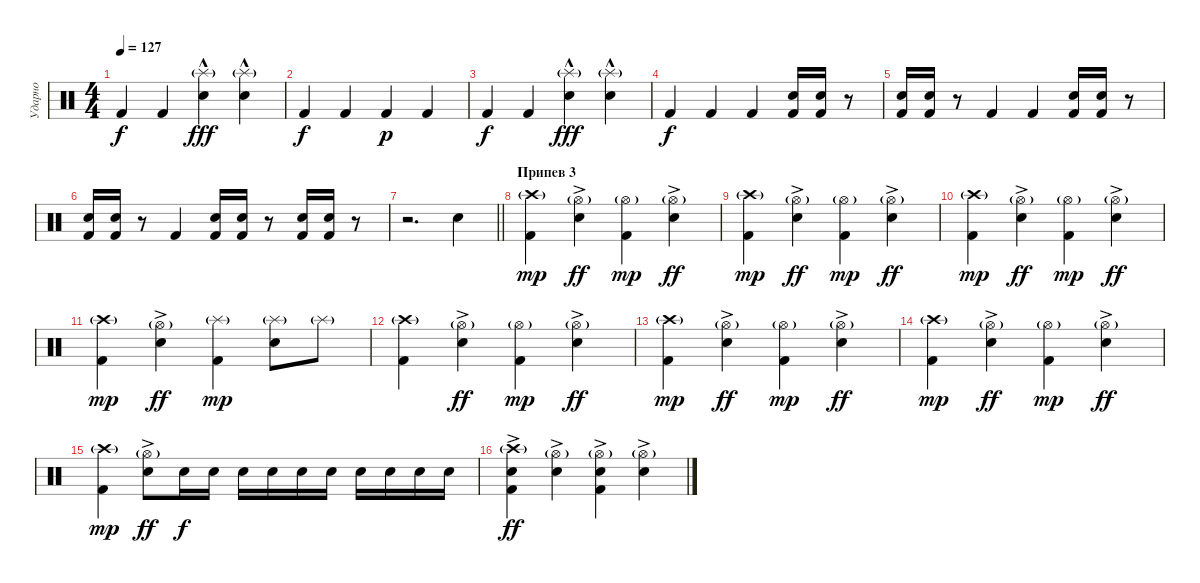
\track ("Ударно" "Ударно") {instrument percussion}
\staff {score}
\articulation defaults
\ts (4 4)
\tempo 127
\clef neutral
\ks c "Kick (hit) 2".4{dy f} "Kick (hit) 2".4
("Splash (hit)"{g} "Electric Snare (hit)"{hac}).4{dy fff} ("Splash (hit)"{g} "Electric Snare (hit)"{hac}).4 |
"Kick (hit) 2".4{dy f} "Kick (hit) 2".4 "Kick (hit) 2".4{dy p} "Kick (hit) 2".4 |
"Kick (hit) 2".4{dy f} "Kick (hit) 2".4 ("Splash (hit)"{g} "Electric Snare (hit)"{hac}).4{dy fff} ("Splash (hit)"{g} "Electric Snare (hit)"{hac}).4 |
"Kick (hit) 2".4{dy f} "Kick (hit) 2".4 "Kick (hit) 2".4 ("Electric Snare (hit)" "Kick (hit) 2").16 ("Electric Snare (hit)" "Kick (hit) 2").16 r.8 |
("Electric Snare (hit)" "Kick (hit) 2").16 ("Electric Snare (hit)" "Kick (hit) 2").16 r.8 "Kick (hit) 2".4 "Kick (hit) 2".4 ("Electric Snare (hit)" "Kick (hit) 2").16 ("Electric Snare (hit)" "Kick (hit) 2").16 r.8 |
("Electric Snare (hit)" "Kick (hit) 2").16 ("Electric Snare (hit)" "Kick (hit) 2").16 r.8 "Kick (hit) 2".4 ("Electric Snare (hit)" "Kick (hit) 2").16 ("Electric Snare (hit)" "Kick (hit) 2").16 r.8 ("Electric Snare (hit)" "Kick (hit) 2").16 ("Electric Snare (hit)" "Kick (hit) 2").16 r.8 |
\barLineRight lightlight
r.2{d} "Electric Snare (hit)".4 |
\section ("" "Припев 3")
("Crash high (hit)"{g} "Kick (hit) 2").4{dy mp} ("Hi-Hat (open)"{g} "Electric Snare (hit)"{ac}).4{dy ff} ("Hi-Hat (open)"{g} "Kick (hit) 2").4{dy mp} ("Hi-Hat (open)"{g} "Electric Snare (hit)"{ac}).4{dy ff} |
("Crash high (hit)"{g} "Kick (hit) 2").4{dy mp} ("Hi-Hat (open)"{g} "Electric Snare (hit)"{ac}).4{dy ff} ("Hi-Hat (open)"{g} "Kick (hit) 2").4{dy mp} ("Hi-Hat (open)"{g} "Electric Snare (hit)"{ac}).4{dy ff} |
("Crash high (hit)"{g} "Kick (hit) 2").4{dy mp} ("Hi-Hat (open)"{g} "Electric Snare (hit)"{ac}).4{dy ff} ("Hi-Hat (open)"{g} "Kick (hit) 2").4{dy mp} ("Hi-Hat (open)"{g} "Electric Snare (hit)"{ac}).4{dy ff} |
("Crash high (hit)"{g} "Kick (hit) 2").4{dy mp} ("Hi-Hat (open)"{g} "Electric Snare (hit)"{ac}).4{dy ff} ("Splash (hit)"{g} "Kick (hit) 2").4{dy mp} ("Splash (hit)"{g} "Electric Snare (hit)").8 "Splash (hit)"{g}.8 |
("Crash high (hit)"{g} "Kick (hit) 2").4 ("Hi-Hat (open)"{g} "Electric Snare (hit)"{ac}).4{dy ff} ("Hi-Hat (open)"{g} "Kick (hit) 2").4{dy mp} ("Hi-Hat (open)"{g} "Electric Snare (hit)"{ac}).4{dy ff} |
("Crash high (hit)"{g} "Kick (hit) 2").4{dy mp} ("Hi-Hat (open)"{g} "Electric Snare (hit)"{ac}).4{dy ff} ("Hi-Hat (open)"{g} "Kick (hit) 2").4{dy mp} ("Hi-Hat (open)"{g} "Electric Snare (hit)"{ac}).4{dy ff} |
("Crash high (hit)"{g} "Kick (hit) 2").4{dy mp} ("Hi-Hat (open)"{g} "Electric Snare (hit)"{ac}).4{dy ff} ("Hi-Hat (open)"{g} "Kick (hit) 2").4{dy mp} ("Hi-Hat (open)"{g} "Electric Snare (hit)"{ac}).4{dy ff} |
("Crash high (hit)"{g} "Kick (hit) 2").4{dy mp} ("Hi-Hat (open)"{g} "Electric Snare (hit)"{ac}).8{dy ff} "Electric Snare (hit)".16{dy f} "Electric Snare (hit)".16 "Electric Snare (hit)".16 "Electric Snare (hit)".16 "Electric Snare (hit)".16 "Electric Snare (hit)".16 "Electric Snare (hit)".16 "Electric Snare (hit)".16 "Electric Snare (hit)".16 "Electric Snare (hit)".16 |
("Crash high (hit)"{g} "Electric Snare (hit)"{ac} "Kick (hit) 2").4{dy ff} ("Hi-Hat (open)"{g} "Electric Snare (hit)"{ac}).4 ("Hi-Hat (open)"{g} "Electric Snare (hit)"{ac} "Kick (hit) 2").4 ("Hi-Hat (open)"{g} "Electric Snare (hit)"{ac}).4
